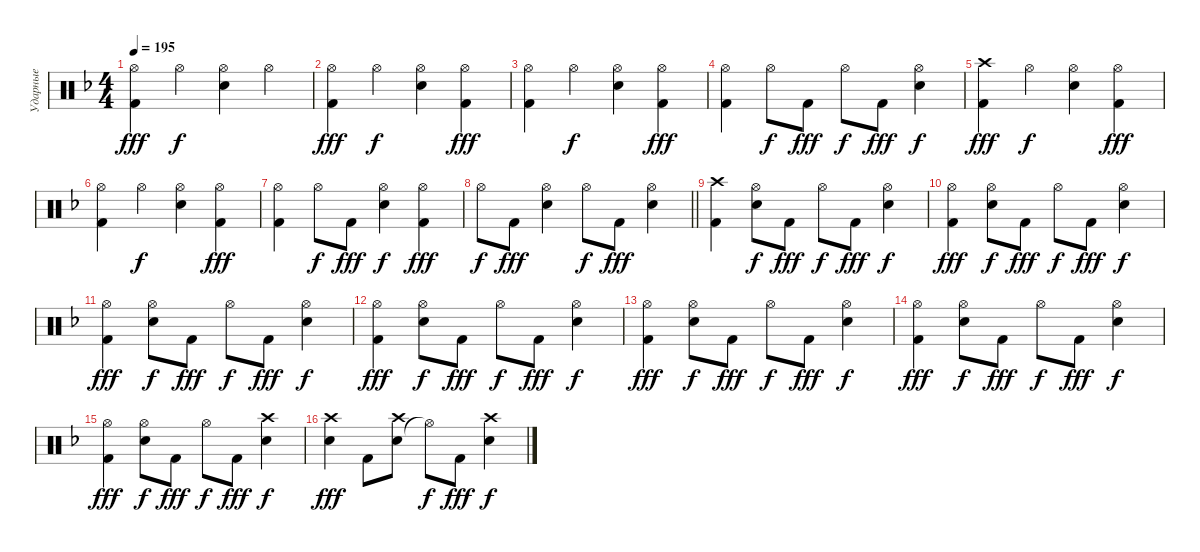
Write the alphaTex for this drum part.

\track ("Ударные" "Ударные") {instrument percussion}
\staff {score}
\articulation defaults
\ts (4 4)
\tempo 195
\clef neutral
\ks f
("Kick (hit) 2" "Hi-Hat (open)").4{dy fff} "Hi-Hat (open)".4{dy f} ("Snare (hit) 2" "Hi-Hat (open)").4 "Hi-Hat (open)".4 |
("Kick (hit) 2" "Hi-Hat (open)").4{dy fff} "Hi-Hat (open)".4{dy f} ("Snare (hit) 2" "Hi-Hat (open)").4 ("Kick (hit) 2" "Hi-Hat (open)").4{dy fff} |
("Kick (hit) 2" "Hi-Hat (open)").4 "Hi-Hat (open)".4{dy f} ("Snare (hit) 2" "Hi-Hat (open)").4 ("Kick (hit) 2" "Hi-Hat (open)").4{dy fff} |
("Kick (hit) 2" "Hi-Hat (open)").4 "Hi-Hat (open)".8{dy f} "Kick (hit) 2".8{dy fff} "Hi-Hat (open)".8{dy f} "Kick (hit) 2".8{dy fff} ("Snare (hit) 2" "Hi-Hat (open)").4{dy f} |
("Kick (hit) 2" "Crash high (hit)").4{dy fff} "Hi-Hat (open)".4{dy f} ("Snare (hit) 2" "Hi-Hat (open)").4 ("Kick (hit) 2" "Hi-Hat (open)").4{dy fff} |
("Kick (hit) 2" "Hi-Hat (open)").4 "Hi-Hat (open)".4{dy f} ("Snare (hit) 2" "Hi-Hat (open)").4 ("Kick (hit) 2" "Hi-Hat (open)").4{dy fff} |
("Kick (hit) 2" "Hi-Hat (open)").4 "Hi-Hat (open)".8{dy f} "Kick (hit) 2".8{dy fff} ("Snare (hit) 2" "Hi-Hat (open)").4{dy f} ("Kick (hit) 2" "Hi-Hat (open)").4{dy fff} |
\barLineRight lightlight "Hi-Hat (open)".8{dy f} "Kick (hit) 2".8{dy fff}
("Snare (hit) 2" "Hi-Hat (open)").4 "Hi-Hat (open)".8{dy f} "Kick (hit) 2".8{dy fff} ("Snare (hit) 2" "Hi-Hat (open)").4 |
("Kick (hit) 2" "Crash high (hit)").4 ("Snare (hit) 2" "Hi-Hat (open)").8{dy f} "Kick (hit) 2".8{dy fff} "Hi-Hat (open)".8{dy f} "Kick (hit) 2".8{dy fff} ("Snare (hit) 2" "Hi-Hat (open)").4{dy f} |
("Kick (hit) 2" "Hi-Hat (open)").4{dy fff} ("Snare (hit) 2" "Hi-Hat (open)").8{dy f} "Kick (hit) 2".8{dy fff} "Hi-Hat (open)".8{dy f} "Kick (hit) 2".8{dy fff} ("Snare (hit) 2" "Hi-Hat (open)").4{dy f} |
("Kick (hit) 2" "Hi-Hat (open)").4{dy fff} ("Snare (hit) 2" "Hi-Hat (open)").8{dy f} "Kick (hit) 2".8{dy fff} "Hi-Hat (open)".8{dy f} "Kick (hit) 2".8{dy fff} ("Snare (hit) 2" "Hi-Hat (open)").4{dy f} |
("Kick (hit) 2" "Hi-Hat (open)").4{dy fff} ("Snare (hit) 2" "Hi-Hat (open)").8{dy f} "Kick (hit) 2".8{dy fff} "Hi-Hat (open)".8{dy f} "Kick (hit) 2".8{dy fff} ("Snare (hit) 2" "Hi-Hat (open)").4{dy f} |
("Kick (hit) 2" "Hi-Hat (open)").4{dy fff} ("Snare (hit) 2" "Hi-Hat (open)").8{dy f} "Kick (hit) 2".8{dy fff} "Hi-Hat (open)".8{dy f} "Kick (hit) 2".8{dy fff} ("Snare (hit) 2" "Hi-Hat (open)").4{dy f} |
("Kick (hit) 2" "Hi-Hat (open)").4{dy fff} ("Snare (hit) 2" "Hi-Hat (open)").8{dy f} "Kick (hit) 2".8{dy fff} "Hi-Hat (open)".8{dy f} "Kick (hit) 2".8{dy fff} ("Snare (hit) 2" "Hi-Hat (open)").4{dy f} |
("Kick (hit) 2" "Hi-Hat (open)").4{dy fff} ("Snare (hit) 2" "Hi-Hat (open)").8{dy f} "Kick (hit) 2".8{dy fff} "Hi-Hat (open)".8{dy f} "Kick (hit) 2".8{dy fff} ("Snare (hit) 2" "Crash high (hit)").4{dy f} |
("Snare (hit) 2" "Crash high (hit)").4{dy fff} "Kick (hit) 2".8 ("Snare (hit) 2" "Crash high (hit)").8 "Hi-Hat (open)"{t}.8{dy f} "Kick (hit) 2".8{dy fff} ("Snare (hit) 2" "Crash high (hit)").4{dy f}
